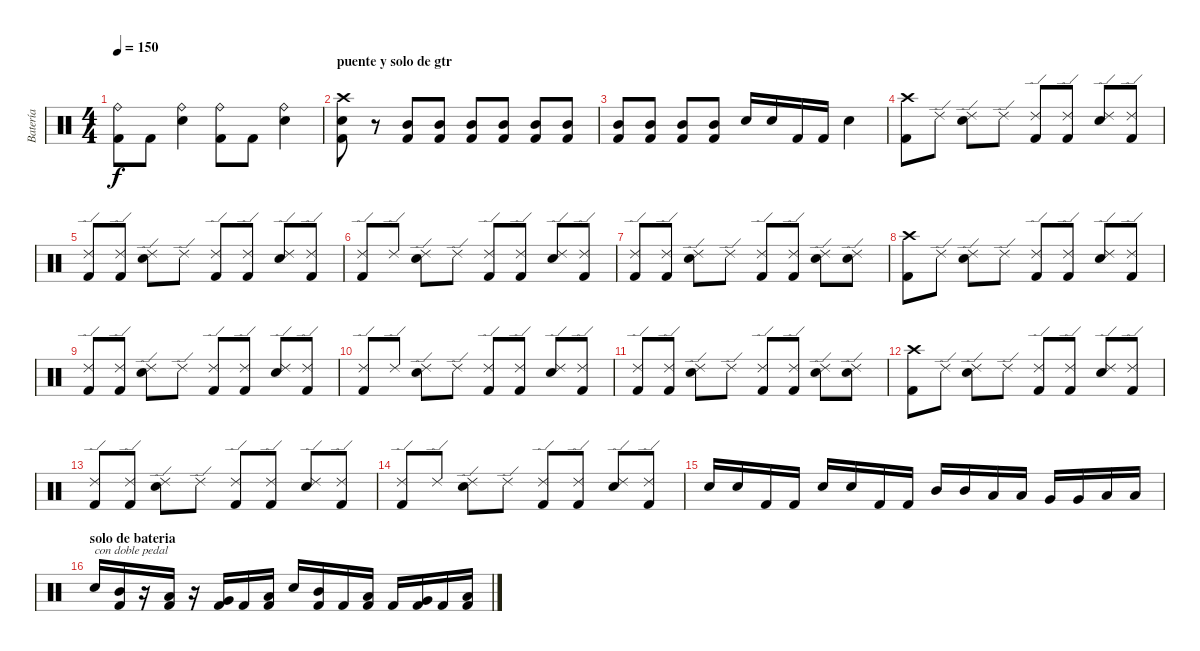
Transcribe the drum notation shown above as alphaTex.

\track ("Batería" "Batería") {instrument percussion}
\staff {score}
\articulation defaults
\ts (4 4)
\tempo 150
\clef neutral
\ks c
("Ride (bell)" "Kick (hit) 2").8{dy f} "Kick (hit) 2".8 ("Ride (bell)" "Electric Snare (hit)").4 ("Ride (bell)" "Kick (hit) 2").8 "Kick (hit) 2".8 ("Ride (bell)" "Electric Snare (hit)").4 |
\section ("" "puente y solo de gtr")
("Crash high (hit)" "Electric Snare (hit)" "Kick (hit) 2").8 r.8 ("Kick (hit) 2" "Mid Tom (hit)").8 ("Kick (hit) 2" "Mid Tom (hit)").8 ("Kick (hit) 2" "Mid Tom (hit)").8 ("Kick (hit) 2" "Mid Tom (hit)").8 ("Kick (hit) 2" "Mid Tom (hit)").8 ("Kick (hit) 2" "Mid Tom (hit)").8 |
("Kick (hit) 2" "Mid Tom (hit)").8 ("Kick (hit) 2" "Mid Tom (hit)").8 ("Kick (hit) 2" "Mid Tom (hit)").8 ("Kick (hit) 2" "Mid Tom (hit)").8 "Electric Snare (hit)".16 "Electric Snare (hit)".16 "Kick (hit) 2".16 "Kick (hit) 2".16 "Electric Snare (hit)".4 |
("Crash high (hit)" "Kick (hit) 2").8 "Ride (edge) 2".8 ("Ride (edge) 2" "Electric Snare (hit)").8 "Ride (edge) 2".8 ("Ride (edge) 2" "Kick (hit) 2").8 ("Ride (edge) 2" "Kick (hit) 2").8 ("Ride (edge) 2" "Electric Snare (hit)").8 ("Ride (edge) 2" "Kick (hit) 2").8 |
("Ride (edge) 2" "Kick (hit) 2").8 ("Ride (edge) 2" "Kick (hit) 2").8 ("Ride (edge) 2" "Electric Snare (hit)").8 "Ride (edge) 2".8 ("Ride (edge) 2" "Kick (hit) 2").8 ("Ride (edge) 2" "Kick (hit) 2").8 ("Ride (edge) 2" "Electric Snare (hit)").8 ("Ride (edge) 2" "Kick (hit) 2").8 |
("Ride (edge) 2" "Kick (hit) 2").8 "Ride (edge) 2".8 ("Ride (edge) 2" "Electric Snare (hit)").8 "Ride (edge) 2".8 ("Ride (edge) 2" "Kick (hit) 2").8 ("Ride (edge) 2" "Kick (hit) 2").8 ("Ride (edge) 2" "Electric Snare (hit)").8 ("Ride (edge) 2" "Kick (hit) 2").8 |
("Ride (edge) 2" "Kick (hit) 2").8 ("Ride (edge) 2" "Kick (hit) 2").8 ("Ride (edge) 2" "Electric Snare (hit)").8 "Ride (edge) 2".8 ("Ride (edge) 2" "Kick (hit) 2").8 ("Ride (edge) 2" "Kick (hit) 2").8 ("Ride (edge) 2" "Electric Snare (hit)").8 ("Ride (edge) 2" "Electric Snare (hit)").8 |
("Crash high (hit)" "Kick (hit) 2").8 "Ride (edge) 2".8 ("Ride (edge) 2" "Electric Snare (hit)").8 "Ride (edge) 2".8 ("Ride (edge) 2" "Kick (hit) 2").8 ("Ride (edge) 2" "Kick (hit) 2").8 ("Ride (edge) 2" "Electric Snare (hit)").8 ("Ride (edge) 2" "Kick (hit) 2").8 |
("Ride (edge) 2" "Kick (hit) 2").8 ("Ride (edge) 2" "Kick (hit) 2").8 ("Ride (edge) 2" "Electric Snare (hit)").8 "Ride (edge) 2".8 ("Ride (edge) 2" "Kick (hit) 2").8 ("Ride (edge) 2" "Kick (hit) 2").8 ("Ride (edge) 2" "Electric Snare (hit)").8 ("Ride (edge) 2" "Kick (hit) 2").8 |
("Ride (edge) 2" "Kick (hit) 2").8 "Ride (edge) 2".8 ("Ride (edge) 2" "Electric Snare (hit)").8 "Ride (edge) 2".8 ("Ride (edge) 2" "Kick (hit) 2").8 ("Ride (edge) 2" "Kick (hit) 2").8 ("Ride (edge) 2" "Electric Snare (hit)").8 ("Ride (edge) 2" "Kick (hit) 2").8 |
("Ride (edge) 2" "Kick (hit) 2").8 ("Ride (edge) 2" "Kick (hit) 2").8 ("Ride (edge) 2" "Electric Snare (hit)").8 "Ride (edge) 2".8 ("Ride (edge) 2" "Kick (hit) 2").8 ("Ride (edge) 2" "Kick (hit) 2").8 ("Ride (edge) 2" "Electric Snare (hit)").8 ("Ride (edge) 2" "Electric Snare (hit)").8 |
("Crash high (hit)" "Kick (hit) 2").8 "Ride (edge) 2".8 ("Ride (edge) 2" "Electric Snare (hit)").8 "Ride (edge) 2".8 ("Ride (edge) 2" "Kick (hit) 2").8 ("Ride (edge) 2" "Kick (hit) 2").8 ("Ride (edge) 2" "Electric Snare (hit)").8 ("Ride (edge) 2" "Kick (hit) 2").8 |
("Ride (edge) 2" "Kick (hit) 2").8 ("Ride (edge) 2" "Kick (hit) 2").8 ("Ride (edge) 2" "Electric Snare (hit)").8 "Ride (edge) 2".8 ("Ride (edge) 2" "Kick (hit) 2").8 ("Ride (edge) 2" "Kick (hit) 2").8 ("Ride (edge) 2" "Electric Snare (hit)").8 ("Ride (edge) 2" "Kick (hit) 2").8 |
("Ride (edge) 2" "Kick (hit) 2").8 "Ride (edge) 2".8 ("Ride (edge) 2" "Electric Snare (hit)").8 "Ride (edge) 2".8 ("Ride (edge) 2" "Kick (hit) 2").8 ("Ride (edge) 2" "Kick (hit) 2").8 ("Ride (edge) 2" "Electric Snare (hit)").8 ("Ride (edge) 2" "Kick (hit) 2").8 |
"Electric Snare (hit)".16 "Electric Snare (hit)".16 "Kick (hit) 2".16 "Kick (hit) 2".16 "Electric Snare (hit)".16 "Electric Snare (hit)".16 "Kick (hit) 2".16 "Kick (hit) 2".16 "Mid Tom (hit)".16 "Mid Tom (hit)".16 "Low Tom (hit)".16 "Low Tom (hit)".16 "Very Low Tom (hit)".16 "Very Low Tom (hit)".16 "Low Floor Tom (hit)".16 "Low Floor Tom (hit)".16 |
\section ("" "solo de bateria")
"Electric Snare (hit)".16{txt "con doble pedal"} ("Kick (hit) 2" "Mid Tom (hit)").16 r.16 ("Kick (hit) 2" "Low Tom (hit)").16 r.16 ("Kick (hit) 2" "Very Low Tom (hit)").16 "Kick (hit) 2".16 ("Kick (hit) 2" "Low Tom (hit)").16 "Electric Snare (hit)".16 ("Kick (hit) 2" "Mid Tom (hit)").16 "Kick (hit) 2".16 ("Kick (hit) 2" "Low Tom (hit)").16 "Kick (hit) 2".16 ("Kick (hit) 2" "Very Low Tom (hit)").16 "Kick (hit) 2".16 ("Kick (hit) 2" "Low Tom (hit)").16
